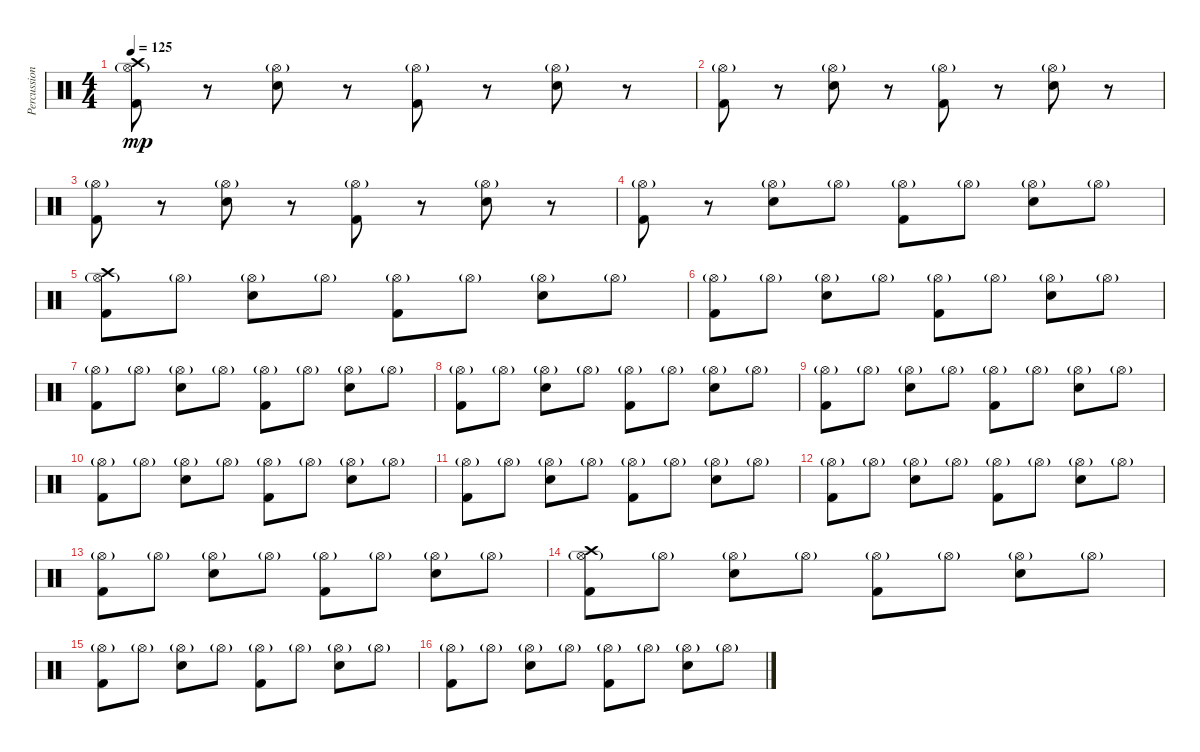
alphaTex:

\track ("Percussions" "Percussion") {instrument percussion}
\staff {score}
\articulation defaults
\ts (4 4)
\tempo 125
\clef neutral
\ks c
("Hi-Hat (open)"{g} "Crash high (hit)" "Kick (hit) 2").8{dy mp} r.8 ("Hi-Hat (open)"{g} "Snare (hit) 2").8 r.8 ("Hi-Hat (open)"{g} "Kick (hit) 2").8 r.8 ("Hi-Hat (open)"{g} "Snare (hit) 2").8 r.8 |
("Hi-Hat (open)"{g} "Kick (hit) 2").8 r.8 ("Hi-Hat (open)"{g} "Snare (hit) 2").8 r.8 ("Hi-Hat (open)"{g} "Kick (hit) 2").8 r.8 ("Hi-Hat (open)"{g} "Snare (hit) 2").8 r.8 |
("Hi-Hat (open)"{g} "Kick (hit) 2").8 r.8 ("Hi-Hat (open)"{g} "Snare (hit) 2").8 r.8 ("Hi-Hat (open)"{g} "Kick (hit) 2").8 r.8 ("Hi-Hat (open)"{g} "Snare (hit) 2").8 r.8 |
("Hi-Hat (open)"{g} "Kick (hit) 2").8 r.8 ("Hi-Hat (open)"{g} "Snare (hit) 2").8 "Hi-Hat (open)"{g}.8 ("Hi-Hat (open)"{g} "Kick (hit) 2").8 "Hi-Hat (open)"{g}.8 ("Hi-Hat (open)"{g} "Snare (hit) 2").8 "Hi-Hat (open)"{g}.8 |
("Hi-Hat (open)"{g} "Crash high (hit)" "Kick (hit) 2").8 "Hi-Hat (open)"{g}.8 ("Hi-Hat (open)"{g} "Snare (hit) 2").8 "Hi-Hat (open)"{g}.8 ("Hi-Hat (open)"{g} "Kick (hit) 2").8 "Hi-Hat (open)"{g}.8 ("Hi-Hat (open)"{g} "Snare (hit) 2").8 "Hi-Hat (open)"{g}.8 |
("Hi-Hat (open)"{g} "Kick (hit) 2").8 "Hi-Hat (open)"{g}.8 ("Hi-Hat (open)"{g} "Snare (hit) 2").8 "Hi-Hat (open)"{g}.8 ("Hi-Hat (open)"{g} "Kick (hit) 2").8 "Hi-Hat (open)"{g}.8 ("Hi-Hat (open)"{g} "Snare (hit) 2").8 "Hi-Hat (open)"{g}.8 |
("Hi-Hat (open)"{g} "Kick (hit) 2").8 "Hi-Hat (open)"{g}.8 ("Hi-Hat (open)"{g} "Snare (hit) 2").8 "Hi-Hat (open)"{g}.8 ("Hi-Hat (open)"{g} "Kick (hit) 2").8 "Hi-Hat (open)"{g}.8 ("Hi-Hat (open)"{g} "Snare (hit) 2").8 "Hi-Hat (open)"{g}.8 |
("Hi-Hat (open)"{g} "Kick (hit) 2").8 "Hi-Hat (open)"{g}.8 ("Hi-Hat (open)"{g} "Snare (hit) 2").8 "Hi-Hat (open)"{g}.8 ("Hi-Hat (open)"{g} "Kick (hit) 2").8 "Hi-Hat (open)"{g}.8 ("Hi-Hat (open)"{g} "Snare (hit) 2").8 "Hi-Hat (open)"{g}.8 |
("Hi-Hat (open)"{g} "Kick (hit) 2").8 "Hi-Hat (open)"{g}.8 ("Hi-Hat (open)"{g} "Snare (hit) 2").8 "Hi-Hat (open)"{g}.8 ("Hi-Hat (open)"{g} "Kick (hit) 2").8 "Hi-Hat (open)"{g}.8 ("Hi-Hat (open)"{g} "Snare (hit) 2").8 "Hi-Hat (open)"{g}.8 |
("Hi-Hat (open)"{g} "Kick (hit) 2").8 "Hi-Hat (open)"{g}.8 ("Hi-Hat (open)"{g} "Snare (hit) 2").8 "Hi-Hat (open)"{g}.8 ("Hi-Hat (open)"{g} "Kick (hit) 2").8 "Hi-Hat (open)"{g}.8 ("Hi-Hat (open)"{g} "Snare (hit) 2").8 "Hi-Hat (open)"{g}.8 |
("Hi-Hat (open)"{g} "Kick (hit) 2").8 "Hi-Hat (open)"{g}.8 ("Hi-Hat (open)"{g} "Snare (hit) 2").8 "Hi-Hat (open)"{g}.8 ("Hi-Hat (open)"{g} "Kick (hit) 2").8 "Hi-Hat (open)"{g}.8 ("Hi-Hat (open)"{g} "Snare (hit) 2").8 "Hi-Hat (open)"{g}.8 |
("Hi-Hat (open)"{g} "Kick (hit) 2").8 "Hi-Hat (open)"{g}.8 ("Hi-Hat (open)"{g} "Snare (hit) 2").8 "Hi-Hat (open)"{g}.8 ("Hi-Hat (open)"{g} "Kick (hit) 2").8 "Hi-Hat (open)"{g}.8 ("Hi-Hat (open)"{g} "Snare (hit) 2").8 "Hi-Hat (open)"{g}.8 |
("Hi-Hat (open)"{g} "Kick (hit) 2").8 "Hi-Hat (open)"{g}.8 ("Hi-Hat (open)"{g} "Snare (hit) 2").8 "Hi-Hat (open)"{g}.8 ("Hi-Hat (open)"{g} "Kick (hit) 2").8 "Hi-Hat (open)"{g}.8 ("Hi-Hat (open)"{g} "Snare (hit) 2").8 "Hi-Hat (open)"{g}.8 |
("Hi-Hat (open)"{g} "Crash high (hit)" "Kick (hit) 2").8 "Hi-Hat (open)"{g}.8 ("Hi-Hat (open)"{g} "Snare (hit) 2").8 "Hi-Hat (open)"{g}.8 ("Hi-Hat (open)"{g} "Kick (hit) 2").8 "Hi-Hat (open)"{g}.8 ("Hi-Hat (open)"{g} "Snare (hit) 2").8 "Hi-Hat (open)"{g}.8 |
("Hi-Hat (open)"{g} "Kick (hit) 2").8 "Hi-Hat (open)"{g}.8 ("Hi-Hat (open)"{g} "Snare (hit) 2").8 "Hi-Hat (open)"{g}.8 ("Hi-Hat (open)"{g} "Kick (hit) 2").8 "Hi-Hat (open)"{g}.8 ("Hi-Hat (open)"{g} "Snare (hit) 2").8 "Hi-Hat (open)"{g}.8 |
("Hi-Hat (open)"{g} "Kick (hit) 2").8 "Hi-Hat (open)"{g}.8 ("Hi-Hat (open)"{g} "Snare (hit) 2").8 "Hi-Hat (open)"{g}.8 ("Hi-Hat (open)"{g} "Kick (hit) 2").8 "Hi-Hat (open)"{g}.8 ("Hi-Hat (open)"{g} "Snare (hit) 2").8 "Hi-Hat (open)"{g}.8
